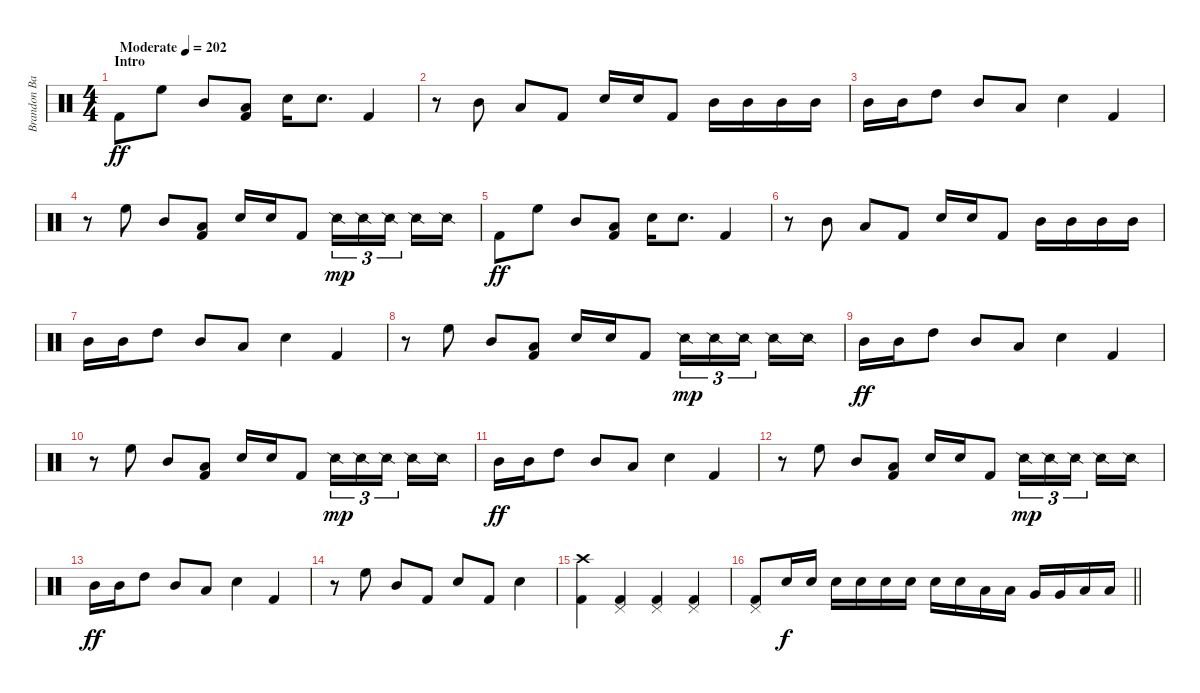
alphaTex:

\track ("Brandon Barnes - Drums" "Brandon Ba") {instrument percussion}
\staff {score}
\articulation defaults
\ts (4 4)
\section ("" "Intro")
\tempo (202 "Moderate")
\clef neutral
\ks c "Kick (hit) 2".8{dy ff} "High Floor Tom (hit)".8 "Mid Tom (hit)".8
("Kick (hit) 2" "Low Tom (hit)").8 "Snare (hit) 2".16 "Snare (hit) 2".8{d} "Kick (hit) 2".4 |
r.8 "Mid Tom (hit)".8 "Low Tom (hit)".8 "Kick (hit) 2".8 "Snare (hit) 2".16 "Snare (hit) 2".16 "Kick (hit) 2".8 "Mid Tom (hit)".16 "Mid Tom (hit)".16 "Mid Tom (hit)".16 "Mid Tom (hit)".16 |
"Mid Tom (hit)".16 "Mid Tom (hit)".16 "High Tom (hit)".8 "Mid Tom (hit)".8 "Low Tom (hit)".8 "Snare (hit) 2".4 "Kick (hit) 2".4 |
r.8 "High Floor Tom (hit)".8 "Mid Tom (hit)".8 ("Kick (hit) 2" "Low Tom (hit)").8 "Snare (hit) 2".16 "Snare (hit) 2".16 "Kick (hit) 2".8 "Snare (side stick) 2".16{tu (3 2) dy mp} "Snare (side stick) 2".16{tu (3 2)} "Snare (side stick) 2".16{tu (3 2) beam splitsecondary} "Snare (side stick) 2".16 "Snare (side stick) 2".16 |
"Kick (hit) 2".8{dy ff} "High Floor Tom (hit)".8 "Mid Tom (hit)".8 ("Kick (hit) 2" "Low Tom (hit)").8 "Snare (hit) 2".16 "Snare (hit) 2".8{d} "Kick (hit) 2".4 |
r.8 "Mid Tom (hit)".8 "Low Tom (hit)".8 "Kick (hit) 2".8 "Snare (hit) 2".16 "Snare (hit) 2".16 "Kick (hit) 2".8 "Mid Tom (hit)".16 "Mid Tom (hit)".16 "Mid Tom (hit)".16 "Mid Tom (hit)".16 |
"Mid Tom (hit)".16 "Mid Tom (hit)".16 "High Tom (hit)".8 "Mid Tom (hit)".8 "Low Tom (hit)".8 "Snare (hit) 2".4 "Kick (hit) 2".4 |
r.8 "High Floor Tom (hit)".8 "Mid Tom (hit)".8 ("Kick (hit) 2" "Low Tom (hit)").8 "Snare (hit) 2".16 "Snare (hit) 2".16 "Kick (hit) 2".8 "Snare (side stick) 2".16{tu (3 2) dy mp} "Snare (side stick) 2".16{tu (3 2)} "Snare (side stick) 2".16{tu (3 2) beam splitsecondary} "Snare (side stick) 2".16 "Snare (side stick) 2".16 |
"Mid Tom (hit)".16{dy ff} "Mid Tom (hit)".16 "High Tom (hit)".8 "Mid Tom (hit)".8 "Low Tom (hit)".8 "Snare (hit) 2".4 "Kick (hit) 2".4 |
r.8 "High Floor Tom (hit)".8 "Mid Tom (hit)".8 ("Kick (hit) 2" "Low Tom (hit)").8 "Snare (hit) 2".16 "Snare (hit) 2".16 "Kick (hit) 2".8 "Snare (side stick) 2".16{tu (3 2) dy mp} "Snare (side stick) 2".16{tu (3 2)} "Snare (side stick) 2".16{tu (3 2) beam splitsecondary} "Snare (side stick) 2".16 "Snare (side stick) 2".16 |
"Mid Tom (hit)".16{dy ff} "Mid Tom (hit)".16 "High Tom (hit)".8 "Mid Tom (hit)".8 "Low Tom (hit)".8 "Snare (hit) 2".4 "Kick (hit) 2".4 |
r.8 "High Floor Tom (hit)".8 "Mid Tom (hit)".8 ("Kick (hit) 2" "Low Tom (hit)").8 "Snare (hit) 2".16 "Snare (hit) 2".16 "Kick (hit) 2".8 "Snare (side stick) 2".16{tu (3 2) dy mp} "Snare (side stick) 2".16{tu (3 2)} "Snare (side stick) 2".16{tu (3 2) beam splitsecondary} "Snare (side stick) 2".16 "Snare (side stick) 2".16 |
"Mid Tom (hit)".16{dy ff} "Mid Tom (hit)".16 "High Tom (hit)".8 "Mid Tom (hit)".8 "Low Tom (hit)".8 "Snare (hit) 2".4 "Kick (hit) 2".4 |
r.8 "High Floor Tom (hit)".8 "Mid Tom (hit)".8 "Kick (hit) 2".8 "Snare (hit) 2".8 "Kick (hit) 2".8 "Snare (hit) 2".4 |
("Crash high (hit)" "Kick (hit) 2").4 ("Kick (hit) 2" "Pedal Hi-Hat (hit)").4 ("Kick (hit) 2" "Pedal Hi-Hat (hit)").4 ("Kick (hit) 2" "Pedal Hi-Hat (hit)").4 |
\barLineRight lightlight
("Kick (hit) 2" "Pedal Hi-Hat (hit)").8 "Snare (hit) 2".16{dy f} "Snare (hit) 2".16 "Snare (hit) 2".16 "Snare (hit) 2".16 "Snare (hit) 2".16 "Snare (hit) 2".16 "Snare (hit) 2".16 "Snare (hit) 2".16 "Low Tom (hit)".16 "Low Tom (hit)".16 "Very Low Tom (hit)".16 "Very Low Tom (hit)".16 "Low Floor Tom (hit)".16 "Low Floor Tom (hit)".16
